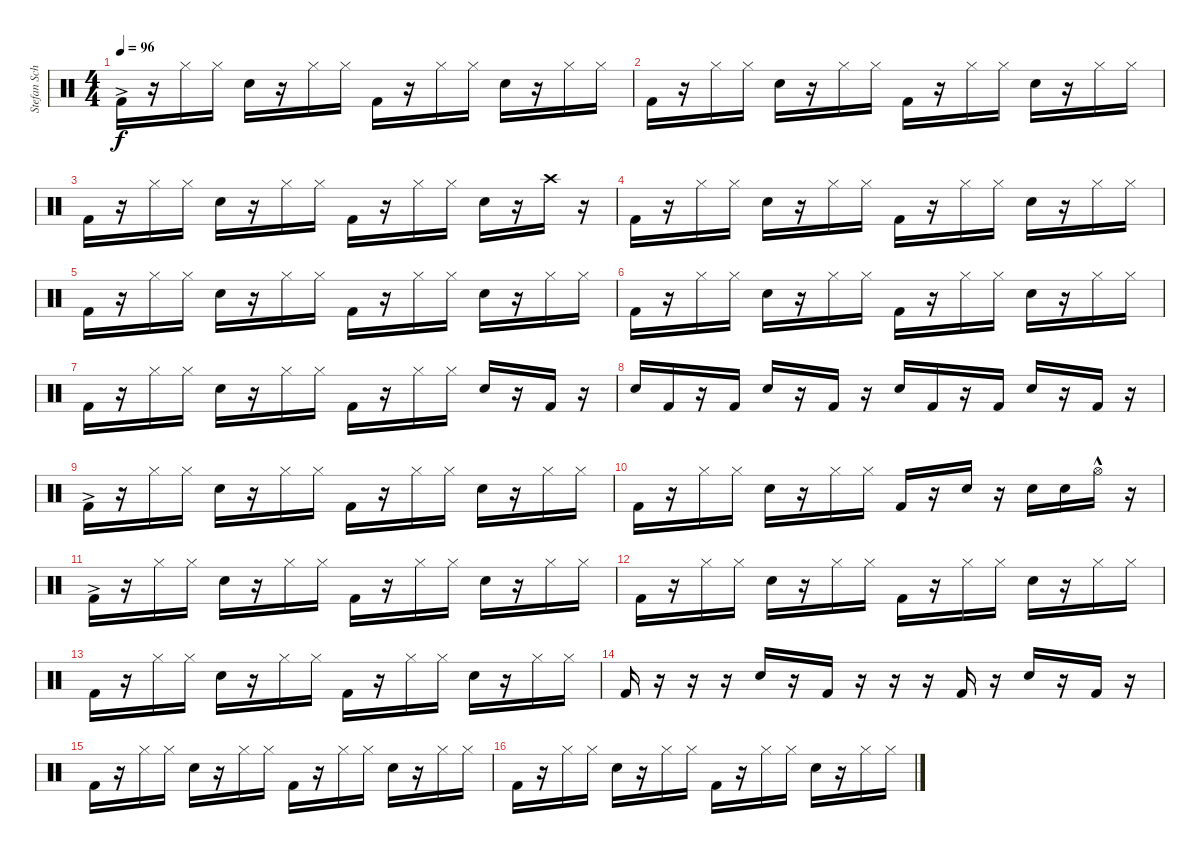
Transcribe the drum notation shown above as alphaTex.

\track ("Stefan Schwarzmann" "Stefan Sch") {instrument percussion}
\staff {score}
\articulation defaults
\ts (4 4)
\tempo 96
\clef neutral
\ks c "Kick (hit) 2"{ac}.16{dy f}
r.16 "Hi-Hat (closed)".16 "Hi-Hat (closed)".16 "Snare (hit) 2".16 r.16 "Hi-Hat (closed)".16 "Hi-Hat (closed)".16 "Kick (hit) 2".16 r.16 "Hi-Hat (closed)".16 "Hi-Hat (closed)".16 "Snare (hit) 2".16 r.16 "Hi-Hat (closed)".16 "Hi-Hat (closed)".16 |
"Kick (hit) 2".16 r.16 "Hi-Hat (closed)".16 "Hi-Hat (closed)".16 "Snare (hit) 2".16 r.16 "Hi-Hat (closed)".16 "Hi-Hat (closed)".16 "Kick (hit) 2".16 r.16 "Hi-Hat (closed)".16 "Hi-Hat (closed)".16 "Snare (hit) 2".16 r.16 "Hi-Hat (closed)".16 "Hi-Hat (closed)".16 |
"Kick (hit) 2".16 r.16 "Hi-Hat (closed)".16 "Hi-Hat (closed)".16 "Snare (hit) 2".16 r.16 "Hi-Hat (closed)".16 "Hi-Hat (closed)".16 "Kick (hit) 2".16 r.16 "Hi-Hat (closed)".16 "Hi-Hat (closed)".16 "Snare (hit) 2".16 r.16 "Crash high (hit)".16 r.16 |
"Kick (hit) 2".16 r.16 "Hi-Hat (closed)".16 "Hi-Hat (closed)".16 "Snare (hit) 2".16 r.16 "Hi-Hat (closed)".16 "Hi-Hat (closed)".16 "Kick (hit) 2".16 r.16 "Hi-Hat (closed)".16 "Hi-Hat (closed)".16 "Snare (hit) 2".16 r.16 "Hi-Hat (closed)".16 "Hi-Hat (closed)".16 |
"Kick (hit) 2".16 r.16 "Hi-Hat (closed)".16 "Hi-Hat (closed)".16 "Snare (hit) 2".16 r.16 "Hi-Hat (closed)".16 "Hi-Hat (closed)".16 "Kick (hit) 2".16 r.16 "Hi-Hat (closed)".16 "Hi-Hat (closed)".16 "Snare (hit) 2".16 r.16 "Hi-Hat (closed)".16 "Hi-Hat (closed)".16 |
"Kick (hit) 2".16 r.16 "Hi-Hat (closed)".16 "Hi-Hat (closed)".16 "Snare (hit) 2".16 r.16 "Hi-Hat (closed)".16 "Hi-Hat (closed)".16 "Kick (hit) 2".16 r.16 "Hi-Hat (closed)".16 "Hi-Hat (closed)".16 "Snare (hit) 2".16 r.16 "Hi-Hat (closed)".16 "Hi-Hat (closed)".16 |
"Kick (hit) 2".16 r.16 "Hi-Hat (closed)".16 "Hi-Hat (closed)".16 "Snare (hit) 2".16 r.16 "Hi-Hat (closed)".16 "Hi-Hat (closed)".16 "Kick (hit) 2".16 r.16 "Hi-Hat (closed)".16 "Hi-Hat (closed)".16 "Snare (hit) 2".16 r.16 "Kick (hit) 2".16 r.16 |
"Snare (hit) 2".16 "Kick (hit) 2".16 r.16 "Kick (hit) 2".16 "Snare (hit) 2".16 r.16 "Kick (hit) 2".16 r.16 "Snare (hit) 2".16 "Kick (hit) 2".16 r.16 "Kick (hit) 2".16 "Snare (hit) 2".16 r.16 "Kick (hit) 2".16 r.16 |
"Kick (hit) 2"{ac}.16 r.16 "Hi-Hat (closed)".16 "Hi-Hat (closed)".16 "Snare (hit) 2".16 r.16 "Hi-Hat (closed)".16 "Hi-Hat (closed)".16 "Kick (hit) 2".16 r.16 "Hi-Hat (closed)".16 "Hi-Hat (closed)".16 "Snare (hit) 2".16 r.16 "Hi-Hat (closed)".16 "Hi-Hat (closed)".16 |
"Kick (hit) 2".16 r.16 "Hi-Hat (closed)".16 "Hi-Hat (closed)".16 "Snare (hit) 2".16 r.16 "Hi-Hat (closed)".16 "Hi-Hat (closed)".16 "Kick (hit) 2".16 r.16 "Snare (hit) 2".16 r.16 "Snare (hit) 2".16 "Snare (hit) 2".16 "Hi-Hat (open)"{hac}.16 r.16 |
"Kick (hit) 2"{ac}.16 r.16 "Hi-Hat (closed)".16 "Hi-Hat (closed)".16 "Snare (hit) 2".16 r.16 "Hi-Hat (closed)".16 "Hi-Hat (closed)".16 "Kick (hit) 2".16 r.16 "Hi-Hat (closed)".16 "Hi-Hat (closed)".16 "Snare (hit) 2".16 r.16 "Hi-Hat (closed)".16 "Hi-Hat (closed)".16 |
"Kick (hit) 2".16 r.16 "Hi-Hat (closed)".16 "Hi-Hat (closed)".16 "Snare (hit) 2".16 r.16 "Hi-Hat (closed)".16 "Hi-Hat (closed)".16 "Kick (hit) 2".16 r.16 "Hi-Hat (closed)".16 "Hi-Hat (closed)".16 "Snare (hit) 2".16 r.16 "Hi-Hat (closed)".16 "Hi-Hat (closed)".16 |
"Kick (hit) 2".16 r.16 "Hi-Hat (closed)".16 "Hi-Hat (closed)".16 "Snare (hit) 2".16 r.16 "Hi-Hat (closed)".16 "Hi-Hat (closed)".16 "Kick (hit) 2".16 r.16 "Hi-Hat (closed)".16 "Hi-Hat (closed)".16 "Snare (hit) 2".16 r.16 "Hi-Hat (closed)".16 "Hi-Hat (closed)".16 |
"Kick (hit) 2".16 r.16 r.16 r.16 "Snare (hit) 2".16 r.16 "Kick (hit) 2".16 r.16 r.16 r.16 "Kick (hit) 2".16 r.16 "Snare (hit) 2".16 r.16 "Kick (hit) 2".16 r.16 |
"Kick (hit) 2".16 r.16 "Hi-Hat (closed)".16 "Hi-Hat (closed)".16 "Snare (hit) 2".16 r.16 "Hi-Hat (closed)".16 "Hi-Hat (closed)".16 "Kick (hit) 2".16 r.16 "Hi-Hat (closed)".16 "Hi-Hat (closed)".16 "Snare (hit) 2".16 r.16 "Hi-Hat (closed)".16 "Hi-Hat (closed)".16 |
"Kick (hit) 2".16 r.16 "Hi-Hat (closed)".16 "Hi-Hat (closed)".16 "Snare (hit) 2".16 r.16 "Hi-Hat (closed)".16 "Hi-Hat (closed)".16 "Kick (hit) 2".16 r.16 "Hi-Hat (closed)".16 "Hi-Hat (closed)".16 "Snare (hit) 2".16 r.16 "Hi-Hat (closed)".16 "Hi-Hat (closed)".16
